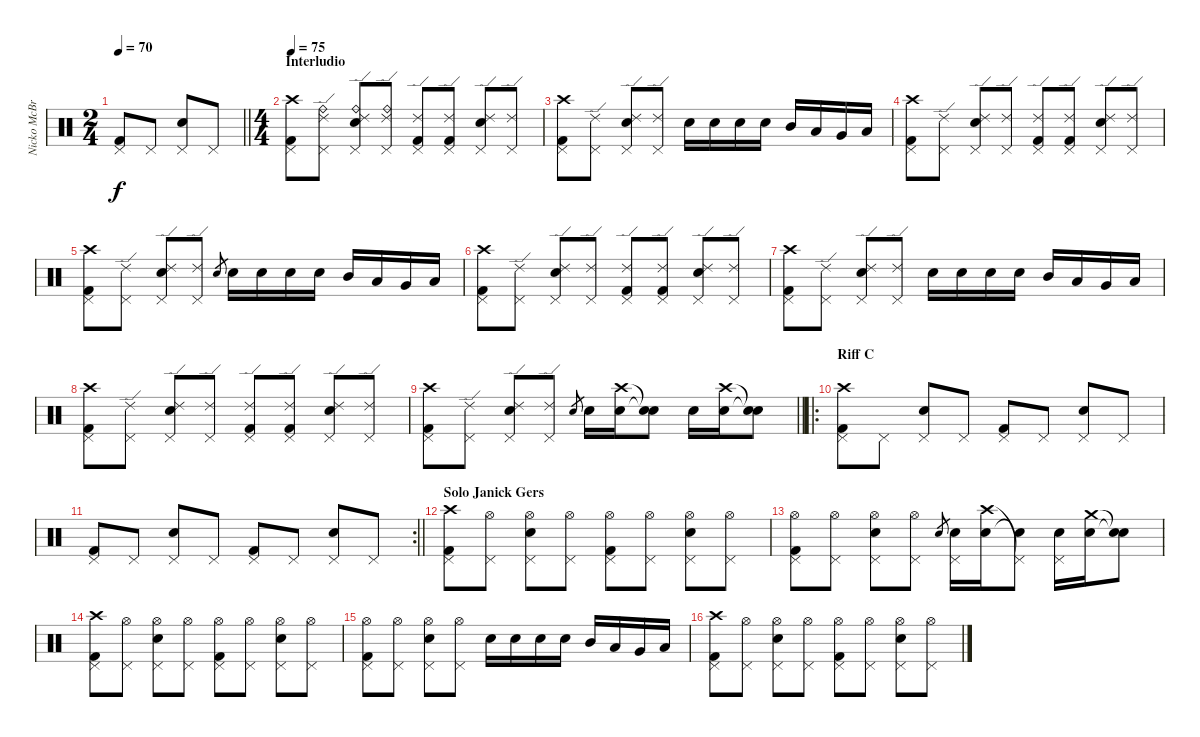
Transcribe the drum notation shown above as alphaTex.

\track ("Nicko McBrain" "Nicko McBr") {instrument percussion}
\staff {score}
\articulation defaults
\ts (2 4)
\tempo 70
\clef neutral
\barLineRight lightlight
\ks c
("Kick (hit) 2" "Pedal Hi-Hat (hit)").8{dy f} "Pedal Hi-Hat (hit)".8 ("Snare (hit) 2" "Pedal Hi-Hat (hit)").8 "Pedal Hi-Hat (hit)".8 |
\ts (4 4)
\section ("" "Interludio")
\tempo 75
("Kick (hit) 2" "Pedal Hi-Hat (hit)" "Crash high (hit)").8 ("Pedal Hi-Hat (hit)" "Ride (edge) 2" "Ride (bell)").8 ("Snare (hit) 2" "Pedal Hi-Hat (hit)" "Ride (edge) 2" "Ride (bell)").8 ("Pedal Hi-Hat (hit)" "Ride (edge) 2" "Ride (bell)").8 ("Kick (hit) 2" "Pedal Hi-Hat (hit)" "Ride (edge) 2").8 ("Kick (hit) 2" "Pedal Hi-Hat (hit)" "Ride (edge) 2").8 ("Snare (hit) 2" "Pedal Hi-Hat (hit)" "Ride (edge) 2").8 ("Pedal Hi-Hat (hit)" "Ride (edge) 2").8 |
("Kick (hit) 2" "Pedal Hi-Hat (hit)" "Crash high (hit)").8 ("Pedal Hi-Hat (hit)" "Ride (edge) 2").8 ("Snare (hit) 2" "Pedal Hi-Hat (hit)" "Ride (edge) 2").8 ("Pedal Hi-Hat (hit)" "Ride (edge) 2").8 "Snare (hit) 2".16 "Snare (hit) 2".16 "Snare (hit) 2".16 "Snare (hit) 2".16 "Mid Tom (hit)".16 "Low Tom (hit)".16 "Very Low Tom (hit)".16 "Low Floor Tom (hit)".16 |
("Kick (hit) 2" "Pedal Hi-Hat (hit)" "Crash high (hit)").8 ("Pedal Hi-Hat (hit)" "Ride (edge) 2").8 ("Snare (hit) 2" "Pedal Hi-Hat (hit)" "Ride (edge) 2").8 ("Pedal Hi-Hat (hit)" "Ride (edge) 2").8 ("Kick (hit) 2" "Pedal Hi-Hat (hit)" "Ride (edge) 2").8 ("Kick (hit) 2" "Pedal Hi-Hat (hit)" "Ride (edge) 2").8 ("Snare (hit) 2" "Pedal Hi-Hat (hit)" "Ride (edge) 2").8 ("Pedal Hi-Hat (hit)" "Ride (edge) 2").8 |
("Kick (hit) 2" "Pedal Hi-Hat (hit)" "Crash high (hit)").8 ("Pedal Hi-Hat (hit)" "Ride (edge) 2").8 ("Snare (hit) 2" "Pedal Hi-Hat (hit)" "Ride (edge) 2").8 ("Pedal Hi-Hat (hit)" "Ride (edge) 2").8 "Snare (hit) 2".8{gr} "Snare (hit) 2".16 "Snare (hit) 2".16 "Snare (hit) 2".16 "Snare (hit) 2".16 "Mid Tom (hit)".16 "Low Tom (hit)".16 "Very Low Tom (hit)".16 "Low Floor Tom (hit)".16 |
("Kick (hit) 2" "Pedal Hi-Hat (hit)" "Crash high (hit)").8 ("Pedal Hi-Hat (hit)" "Ride (edge) 2").8 ("Snare (hit) 2" "Pedal Hi-Hat (hit)" "Ride (edge) 2").8 ("Pedal Hi-Hat (hit)" "Ride (edge) 2").8 ("Kick (hit) 2" "Pedal Hi-Hat (hit)" "Ride (edge) 2").8 ("Kick (hit) 2" "Pedal Hi-Hat (hit)" "Ride (edge) 2").8 ("Snare (hit) 2" "Pedal Hi-Hat (hit)" "Ride (edge) 2").8 ("Pedal Hi-Hat (hit)" "Ride (edge) 2").8 |
("Kick (hit) 2" "Pedal Hi-Hat (hit)" "Crash high (hit)").8 ("Pedal Hi-Hat (hit)" "Ride (edge) 2").8 ("Snare (hit) 2" "Pedal Hi-Hat (hit)" "Ride (edge) 2").8 ("Pedal Hi-Hat (hit)" "Ride (edge) 2").8 "Snare (hit) 2".16 "Snare (hit) 2".16 "Snare (hit) 2".16 "Snare (hit) 2".16 "Mid Tom (hit)".16 "Low Tom (hit)".16 "Very Low Tom (hit)".16 "Low Floor Tom (hit)".16 |
("Kick (hit) 2" "Pedal Hi-Hat (hit)" "Crash high (hit)").8 ("Pedal Hi-Hat (hit)" "Ride (edge) 2").8 ("Snare (hit) 2" "Pedal Hi-Hat (hit)" "Ride (edge) 2").8 ("Pedal Hi-Hat (hit)" "Ride (edge) 2").8 ("Kick (hit) 2" "Pedal Hi-Hat (hit)" "Ride (edge) 2").8 ("Kick (hit) 2" "Pedal Hi-Hat (hit)" "Ride (edge) 2").8 ("Snare (hit) 2" "Pedal Hi-Hat (hit)" "Ride (edge) 2").8 ("Pedal Hi-Hat (hit)" "Ride (edge) 2").8 |
\barLineRight lightlight
("Kick (hit) 2" "Pedal Hi-Hat (hit)" "Crash high (hit)").8 ("Pedal Hi-Hat (hit)" "Ride (edge) 2").8 ("Snare (hit) 2" "Pedal Hi-Hat (hit)" "Ride (edge) 2").8 ("Pedal Hi-Hat (hit)" "Ride (edge) 2").8 "Snare (hit) 2".8{gr} "Snare (hit) 2".16 ("Snare (hit) 2" "Crash high (hit)").16 ("Snare (hit)"{t} "Snare (hit)"{t}).8 "Snare (hit) 2".16 ("Snare (hit) 2" "Crash high (hit)").16 ("Snare (hit)"{t} "Snare (hit)"{t}).8 |
\ro
\section ("" "Riff C")
("Kick (hit) 2" "Pedal Hi-Hat (hit)" "Crash high (hit)").8 "Pedal Hi-Hat (hit)".8 ("Snare (hit) 2" "Pedal Hi-Hat (hit)").8 "Pedal Hi-Hat (hit)".8 ("Kick (hit) 2" "Pedal Hi-Hat (hit)").8 "Pedal Hi-Hat (hit)".8 ("Snare (hit) 2" "Pedal Hi-Hat (hit)").8 "Pedal Hi-Hat (hit)".8 |
\rc 2
\barLineRight lightlight
("Kick (hit) 2" "Pedal Hi-Hat (hit)").8 "Pedal Hi-Hat (hit)".8 ("Snare (hit) 2" "Pedal Hi-Hat (hit)").8 "Pedal Hi-Hat (hit)".8 ("Kick (hit) 2" "Pedal Hi-Hat (hit)").8 "Pedal Hi-Hat (hit)".8 ("Snare (hit) 2" "Pedal Hi-Hat (hit)").8 "Pedal Hi-Hat (hit)".8 |
\section ("" "Solo Janick Gers")
("Kick (hit) 2" "Pedal Hi-Hat (hit)" "Crash high (hit)").8 ("Pedal Hi-Hat (hit)" "Hi-Hat (open)").8 ("Snare (hit) 2" "Pedal Hi-Hat (hit)" "Hi-Hat (open)").8 ("Pedal Hi-Hat (hit)" "Hi-Hat (open)").8 ("Kick (hit) 2" "Pedal Hi-Hat (hit)" "Hi-Hat (open)").8 ("Pedal Hi-Hat (hit)" "Hi-Hat (open)").8 ("Snare (hit) 2" "Pedal Hi-Hat (hit)" "Hi-Hat (open)").8 ("Pedal Hi-Hat (hit)" "Hi-Hat (open)").8 |
("Kick (hit) 2" "Pedal Hi-Hat (hit)" "Hi-Hat (open)").8 ("Pedal Hi-Hat (hit)" "Hi-Hat (open)").8 ("Snare (hit) 2" "Pedal Hi-Hat (hit)" "Hi-Hat (open)").8 ("Pedal Hi-Hat (hit)" "Hi-Hat (open)").8 "Snare (hit) 2".8{gr} ("Snare (hit) 2" "Pedal Hi-Hat (hit)").16 ("Snare (hit) 2" "Crash high (hit)").16 ("Snare (hit) 2"{t} "Pedal Hi-Hat (hit)"{t}).8 ("Snare (hit) 2" "Pedal Hi-Hat (hit)").16 ("Snare (hit) 2" "Crash medium (hit)").16 ("Snare (hit)"{t} "Snare (hit)"{t}).8 |
("Kick (hit) 2" "Pedal Hi-Hat (hit)" "Crash high (hit)").8 ("Pedal Hi-Hat (hit)" "Hi-Hat (open)").8 ("Snare (hit) 2" "Pedal Hi-Hat (hit)" "Hi-Hat (open)").8 ("Pedal Hi-Hat (hit)" "Hi-Hat (open)").8 ("Kick (hit) 2" "Pedal Hi-Hat (hit)" "Hi-Hat (open)").8 ("Pedal Hi-Hat (hit)" "Hi-Hat (open)").8 ("Snare (hit) 2" "Pedal Hi-Hat (hit)" "Hi-Hat (open)").8 ("Pedal Hi-Hat (hit)" "Hi-Hat (open)").8 |
("Kick (hit) 2" "Pedal Hi-Hat (hit)" "Hi-Hat (open)").8 ("Pedal Hi-Hat (hit)" "Hi-Hat (open)").8 ("Snare (hit) 2" "Pedal Hi-Hat (hit)" "Hi-Hat (open)").8 ("Pedal Hi-Hat (hit)" "Hi-Hat (open)").8 "Snare (hit) 2".16 "Snare (hit) 2".16 "Snare (hit) 2".16 "Snare (hit) 2".16 "Mid Tom (hit)".16 "Low Tom (hit)".16 "Very Low Tom (hit)".16 "Low Floor Tom (hit)".16 |
("Kick (hit) 2" "Pedal Hi-Hat (hit)" "Crash high (hit)").8 ("Pedal Hi-Hat (hit)" "Hi-Hat (open)").8 ("Snare (hit) 2" "Pedal Hi-Hat (hit)" "Hi-Hat (open)").8 ("Pedal Hi-Hat (hit)" "Hi-Hat (open)").8 ("Kick (hit) 2" "Pedal Hi-Hat (hit)" "Hi-Hat (open)").8 ("Pedal Hi-Hat (hit)" "Hi-Hat (open)").8 ("Snare (hit) 2" "Pedal Hi-Hat (hit)" "Hi-Hat (open)").8 ("Pedal Hi-Hat (hit)" "Hi-Hat (open)").8
